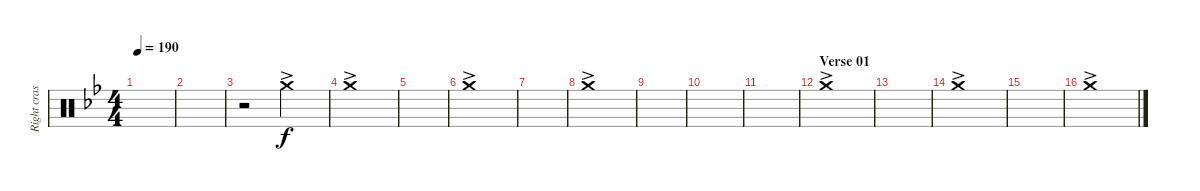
\track ("Right crash" "Right cras") {instrument percussion}
\staff {score}
\articulation defaults
\ts (4 4)
\tempo 190
\clef neutral
\ks bb
|
|
r.2 "Crash medium (hit)"{ac}.2 |
"Crash medium (hit)"{ac}.1 |
|
"Crash medium (hit)"{ac}.1 |
|
"Crash medium (hit)"{ac}.1 |
|
|
|
\section ("" "Verse 01")
"Crash medium (hit)"{ac}.1 |
|
"Crash medium (hit)"{ac}.1 |
|
"Crash medium (hit)"{ac}.1
